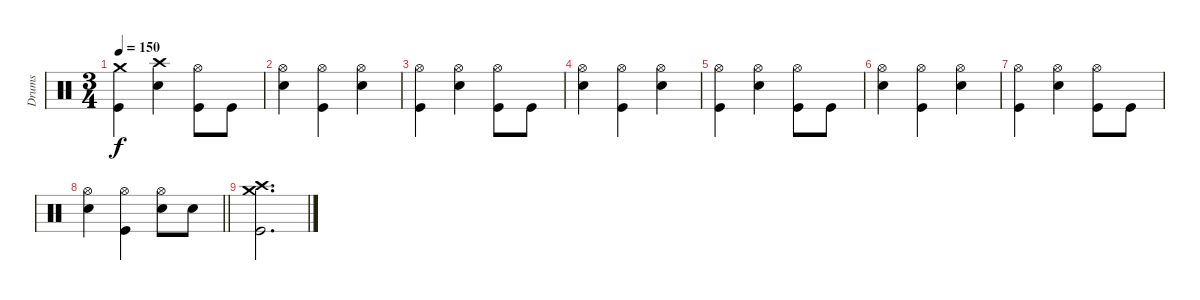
\track ("Drums" "Drums") {instrument percussion}
\staff {score}
\articulation defaults
\ts (3 4)
\tempo 150
\clef neutral
\ks c
("Crash medium (hit)" "Kick (hit)").4{dy f} ("Crash high (hit)" "Electric Snare (hit)").4 ("Hi-Hat (open)" "Kick (hit)").8 "Kick (hit)".8 |
("Hi-Hat (open)" "Electric Snare (hit)").4 ("Hi-Hat (open)" "Kick (hit)").4 ("Hi-Hat (open)" "Electric Snare (hit)").4 |
("Hi-Hat (open)" "Kick (hit)").4 ("Hi-Hat (open)" "Electric Snare (hit)").4 ("Hi-Hat (open)" "Kick (hit)").8 "Kick (hit)".8 |
("Hi-Hat (open)" "Electric Snare (hit)").4 ("Hi-Hat (open)" "Kick (hit)").4 ("Hi-Hat (open)" "Electric Snare (hit)").4 |
("Hi-Hat (open)" "Kick (hit)").4 ("Hi-Hat (open)" "Electric Snare (hit)").4 ("Hi-Hat (open)" "Kick (hit)").8 "Kick (hit)".8 |
("Hi-Hat (open)" "Electric Snare (hit)").4 ("Hi-Hat (open)" "Kick (hit)").4 ("Hi-Hat (open)" "Electric Snare (hit)").4 |
("Hi-Hat (open)" "Kick (hit)").4 ("Hi-Hat (open)" "Electric Snare (hit)").4 ("Hi-Hat (open)" "Kick (hit)").8 "Kick (hit)".8 |
\barLineRight lightlight
("Hi-Hat (open)" "Electric Snare (hit)").4 ("Hi-Hat (open)" "Kick (hit)").4 ("Hi-Hat (open)" "Electric Snare (hit)").8 "Electric Snare (hit)".8 |
("Crash high (hit)" "Crash medium (hit)" "Kick (hit)").2{d}
